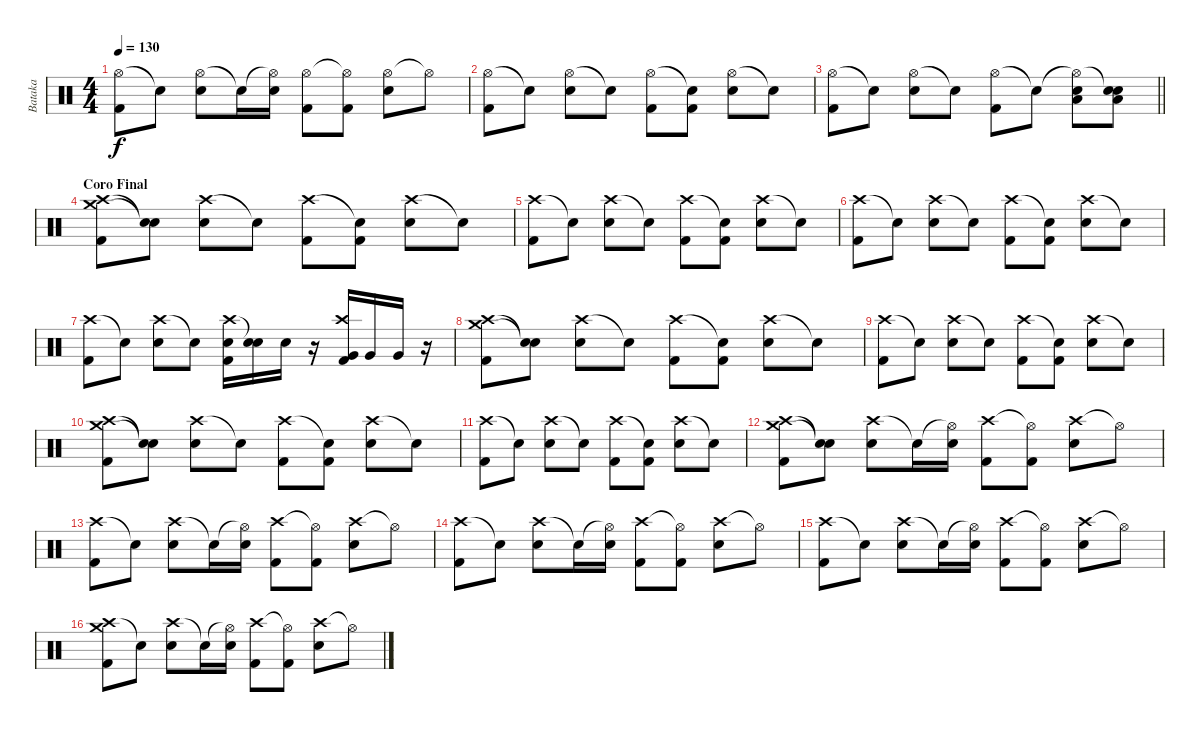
\track ("Bataka" "Bataka") {instrument percussion}
\staff {score}
\articulation defaults
\ts (4 4)
\tempo 130
\clef neutral
\ks c
("Hi-Hat (open)" "Kick (hit) 2").8{dy f} "Snare (hit)"{t}.8 ("Hi-Hat (open)" "Electric Snare (hit)").8 "Snare (hit)"{t}.16 ("Hi-Hat (open)"{t} "Electric Snare (hit)").16 ("Hi-Hat (open)" "Kick (hit) 2").8 ("Hi-Hat (open)"{t} "Kick (hit) 2").8 ("Hi-Hat (open)" "Electric Snare (hit)").8 "Hi-Hat (open)"{t}.8 |
("Hi-Hat (open)" "Kick (hit) 2").8 "Snare (hit)"{t}.8 ("Hi-Hat (open)" "Electric Snare (hit)").8 "Snare (hit)"{t}.8 ("Hi-Hat (open)" "Kick (hit) 2").8 ("Snare (hit)"{t} "Kick (hit) 2").8 ("Hi-Hat (open)" "Electric Snare (hit)").8 "Snare (hit)"{t}.8 |
\barLineRight lightlight
("Hi-Hat (open)" "Kick (hit) 2").8 "Snare (hit)"{t}.8 ("Hi-Hat (open)" "Electric Snare (hit)").8 "Snare (hit)"{t}.8 ("Hi-Hat (open)" "Kick (hit) 2").8 "Snare (hit)"{t}.8 ("Hi-Hat (open)"{t} "Electric Snare (hit)" "Low Floor Tom (hit)").8 ("Snare (hit)"{t} "Electric Snare (hit)" "Low Floor Tom (hit)").8 |
\section ("" "Coro Final")
("Crash medium (hit)" "Crash high (hit)" "Kick (hit) 2").8 ("Snare (hit)"{t} "Snare (hit)"{t}).8 ("Crash high (hit)" "Electric Snare (hit)").8 "Snare (hit)"{t}.8 ("Crash high (hit)" "Kick (hit) 2").8 ("Snare (hit)"{t} "Kick (hit) 2").8 ("Crash high (hit)" "Electric Snare (hit)").8 "Snare (hit)"{t}.8 |
("Crash high (hit)" "Kick (hit) 2").8 "Snare (hit)"{t}.8 ("Crash high (hit)" "Electric Snare (hit)").8 "Snare (hit)"{t}.8 ("Crash high (hit)" "Kick (hit) 2").8 ("Snare (hit)"{t} "Kick (hit) 2").8 ("Crash high (hit)" "Electric Snare (hit)").8 "Snare (hit)"{t}.8 |
("Crash high (hit)" "Kick (hit) 2").8 "Snare (hit)"{t}.8 ("Crash high (hit)" "Electric Snare (hit)").8 "Snare (hit)"{t}.8 ("Crash high (hit)" "Kick (hit) 2").8 ("Snare (hit)"{t} "Kick (hit) 2").8 ("Crash high (hit)" "Electric Snare (hit)").8 "Snare (hit)"{t}.8 |
("Crash high (hit)" "Kick (hit) 2").8 "Snare (hit)"{t}.8 ("Crash high (hit)" "Electric Snare (hit)").8 "Snare (hit)"{t}.8 ("Crash high (hit)" "Electric Snare (hit)" "Kick (hit) 2").16 ("Snare (hit)"{t} "Electric Snare (hit)").16 "Electric Snare (hit)".16 r.16 ("Crash high (hit)" "Very Low Tom (hit)" "Kick (hit) 2").16 "Very Low Tom (hit)".16 "Very Low Tom (hit)".16 r.16 |
("Crash medium (hit)" "Crash high (hit)" "Kick (hit) 2").8 ("Snare (hit)"{t} "Snare (hit)"{t}).8 ("Crash high (hit)" "Electric Snare (hit)").8 "Snare (hit)"{t}.8 ("Crash high (hit)" "Kick (hit) 2").8 ("Snare (hit)"{t} "Kick (hit) 2").8 ("Crash high (hit)" "Electric Snare (hit)").8 "Snare (hit)"{t}.8 |
("Crash high (hit)" "Kick (hit) 2").8 "Snare (hit)"{t}.8 ("Crash high (hit)" "Electric Snare (hit)").8 "Snare (hit)"{t}.8 ("Crash high (hit)" "Kick (hit) 2").8 ("Snare (hit)"{t} "Kick (hit) 2").8 ("Crash high (hit)" "Electric Snare (hit)").8 "Snare (hit)"{t}.8 |
("Crash medium (hit)" "Crash high (hit)" "Kick (hit) 2").8 ("Snare (hit)"{t} "Snare (hit)"{t}).8 ("Crash high (hit)" "Electric Snare (hit)").8 "Snare (hit)"{t}.8 ("Crash high (hit)" "Kick (hit) 2").8 ("Snare (hit)"{t} "Kick (hit) 2").8 ("Crash high (hit)" "Electric Snare (hit)").8 "Snare (hit)"{t}.8 |
("Crash high (hit)" "Kick (hit) 2").8 "Snare (hit)"{t}.8 ("Crash high (hit)" "Electric Snare (hit)").8 "Snare (hit)"{t}.8 ("Crash high (hit)" "Kick (hit) 2").8 ("Snare (hit)"{t} "Kick (hit) 2").8 ("Crash high (hit)" "Electric Snare (hit)").8 "Snare (hit)"{t}.8 |
("Crash medium (hit)" "Crash high (hit)" "Kick (hit) 2").8 ("Snare (hit)"{t} "Snare (hit)"{t}).8 ("Crash high (hit)" "Electric Snare (hit)").8 "Snare (hit)"{t}.16 ("Hi-Hat (open)"{t} "Electric Snare (hit)").16 ("Crash high (hit)" "Kick (hit) 2").8 ("Hi-Hat (open)"{t} "Kick (hit) 2").8 ("Crash high (hit)" "Electric Snare (hit)").8 "Hi-Hat (open)"{t}.8 |
("Crash high (hit)" "Kick (hit) 2").8 "Snare (hit)"{t}.8 ("Crash high (hit)" "Electric Snare (hit)").8 "Snare (hit)"{t}.16 ("Hi-Hat (open)"{t} "Electric Snare (hit)").16 ("Crash high (hit)" "Kick (hit) 2").8 ("Hi-Hat (open)"{t} "Kick (hit) 2").8 ("Crash high (hit)" "Electric Snare (hit)").8 "Hi-Hat (open)"{t}.8 |
("Crash high (hit)" "Kick (hit) 2").8 "Snare (hit)"{t}.8 ("Crash high (hit)" "Electric Snare (hit)").8 "Snare (hit)"{t}.16 ("Hi-Hat (open)"{t} "Electric Snare (hit)").16 ("Crash high (hit)" "Kick (hit) 2").8 ("Hi-Hat (open)"{t} "Kick (hit) 2").8 ("Crash high (hit)" "Electric Snare (hit)").8 "Hi-Hat (open)"{t}.8 |
("Crash high (hit)" "Kick (hit) 2").8 "Snare (hit)"{t}.8 ("Crash high (hit)" "Electric Snare (hit)").8 "Snare (hit)"{t}.16 ("Hi-Hat (open)"{t} "Electric Snare (hit)").16 ("Crash high (hit)" "Kick (hit) 2").8 ("Hi-Hat (open)"{t} "Kick (hit) 2").8 ("Crash high (hit)" "Electric Snare (hit)").8 "Hi-Hat (open)"{t}.8 |
("Crash high (hit)" "Crash medium (hit)" "Kick (hit) 2").8 "Snare (hit)"{t}.8 ("Crash high (hit)" "Electric Snare (hit)").8 "Snare (hit)"{t}.16 ("Hi-Hat (open)"{t} "Electric Snare (hit)").16 ("Crash high (hit)" "Kick (hit) 2").8 ("Hi-Hat (open)"{t} "Kick (hit) 2").8 ("Crash high (hit)" "Electric Snare (hit)").8 "Hi-Hat (open)"{t}.8
